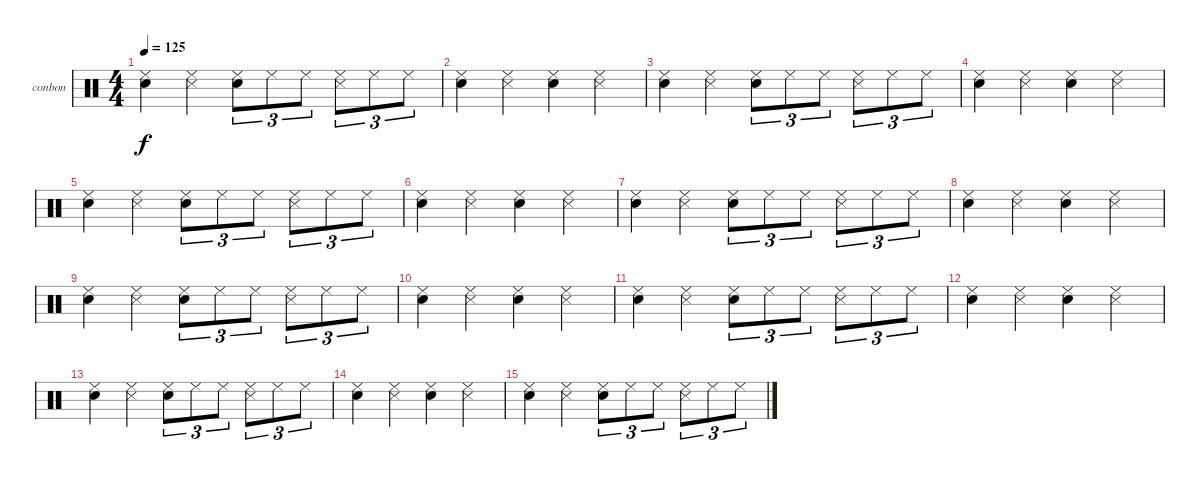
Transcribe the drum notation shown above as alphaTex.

\defaultSystemsLayout 4
\bracketExtendMode groupsimilarinstruments
\firstSystemTrackNameOrientation horizontal
\otherSystemsTrackNameOrientation horizontal
\track ("Bongos N Congas" "conbon") {instrument percussion}
\staff {score}
\articulation defaults
\ts (4 4)
\tempo 125
\clef neutral
\scale
0.333333
\ks c
("Cowbell low (tip)" "Snare (hit) 2").4{dy f} ("Cowbell low (tip)" "Snare (side stick) 3").4 ("Cowbell low (tip)" "Snare (hit) 2").8{tu (3 2)} "Cowbell low (tip)".8{tu (3 2)} "Cowbell low (tip)".8{tu (3 2)} ("Cowbell low (tip)" "Snare (side stick) 3").8{tu (3 2)} "Cowbell low (tip)".8{tu (3 2)} "Cowbell low (tip)".8{tu (3 2)} |
\scale
0.333333 ("Cowbell low (tip)" "Snare (hit) 2").4 ("Cowbell low (tip)" "Snare (side stick) 3").4 ("Cowbell low (tip)" "Snare (hit) 2").4 ("Cowbell low (tip)" "Snare (side stick) 3").4 |
\scale
0.333333 ("Cowbell low (tip)" "Snare (hit) 2").4 ("Cowbell low (tip)" "Snare (side stick) 3").4 ("Cowbell low (tip)" "Snare (hit) 2").8{tu (3 2)} "Cowbell low (tip)".8{tu (3 2)} "Cowbell low (tip)".8{tu (3 2)} ("Cowbell low (tip)" "Snare (side stick) 3").8{tu (3 2)} "Cowbell low (tip)".8{tu (3 2)} "Cowbell low (tip)".8{tu (3 2)} |
\scale
0.333333 ("Cowbell low (tip)" "Snare (hit) 2").4 ("Cowbell low (tip)" "Snare (side stick) 3").4 ("Cowbell low (tip)" "Snare (hit) 2").4 ("Cowbell low (tip)" "Snare (side stick) 3").4 |
\scale
0.333333 ("Cowbell low (tip)" "Snare (hit) 2").4 ("Cowbell low (tip)" "Snare (side stick) 3").4 ("Cowbell low (tip)" "Snare (hit) 2").8{tu (3 2)} "Cowbell low (tip)".8{tu (3 2)} "Cowbell low (tip)".8{tu (3 2)} ("Cowbell low (tip)" "Snare (side stick) 3").8{tu (3 2)} "Cowbell low (tip)".8{tu (3 2)} "Cowbell low (tip)".8{tu (3 2)} |
\scale
0.333333 ("Cowbell low (tip)" "Snare (hit) 2").4 ("Cowbell low (tip)" "Snare (side stick) 3").4 ("Cowbell low (tip)" "Snare (hit) 2").4 ("Cowbell low (tip)" "Snare (side stick) 3").4 |
\scale
0.333333 ("Cowbell low (tip)" "Snare (hit) 2").4 ("Cowbell low (tip)" "Snare (side stick) 3").4 ("Cowbell low (tip)" "Snare (hit) 2").8{tu (3 2)} "Cowbell low (tip)".8{tu (3 2)} "Cowbell low (tip)".8{tu (3 2)} ("Cowbell low (tip)" "Snare (side stick) 3").8{tu (3 2)} "Cowbell low (tip)".8{tu (3 2)} "Cowbell low (tip)".8{tu (3 2)} |
\scale
0.333333 ("Cowbell low (tip)" "Snare (hit) 2").4 ("Cowbell low (tip)" "Snare (side stick) 3").4 ("Cowbell low (tip)" "Snare (hit) 2").4 ("Cowbell low (tip)" "Snare (side stick) 3").4 |
\scale
0.333333 ("Cowbell low (tip)" "Snare (hit) 2").4 ("Cowbell low (tip)" "Snare (side stick) 3").4 ("Cowbell low (tip)" "Snare (hit) 2").8{tu (3 2)} "Cowbell low (tip)".8{tu (3 2)} "Cowbell low (tip)".8{tu (3 2)} ("Cowbell low (tip)" "Snare (side stick) 3").8{tu (3 2)} "Cowbell low (tip)".8{tu (3 2)} "Cowbell low (tip)".8{tu (3 2)} |
\scale
0.333333 ("Cowbell low (tip)" "Snare (hit) 2").4 ("Cowbell low (tip)" "Snare (side stick) 3").4 ("Cowbell low (tip)" "Snare (hit) 2").4 ("Cowbell low (tip)" "Snare (side stick) 3").4 |
\scale
0.333333 ("Cowbell low (tip)" "Snare (hit) 2").4 ("Cowbell low (tip)" "Snare (side stick) 3").4 ("Cowbell low (tip)" "Snare (hit) 2").8{tu (3 2)} "Cowbell low (tip)".8{tu (3 2)} "Cowbell low (tip)".8{tu (3 2)} ("Cowbell low (tip)" "Snare (side stick) 3").8{tu (3 2)} "Cowbell low (tip)".8{tu (3 2)} "Cowbell low (tip)".8{tu (3 2)} |
\scale
0.333333 ("Cowbell low (tip)" "Snare (hit) 2").4 ("Cowbell low (tip)" "Snare (side stick) 3").4 ("Cowbell low (tip)" "Snare (hit) 2").4 ("Cowbell low (tip)" "Snare (side stick) 3").4 |
\scale
0.333333 ("Cowbell low (tip)" "Snare (hit) 2").4 ("Cowbell low (tip)" "Snare (side stick) 3").4 ("Cowbell low (tip)" "Snare (hit) 2").8{tu (3 2)} "Cowbell low (tip)".8{tu (3 2)} "Cowbell low (tip)".8{tu (3 2)} ("Cowbell low (tip)" "Snare (side stick) 3").8{tu (3 2)} "Cowbell low (tip)".8{tu (3 2)} "Cowbell low (tip)".8{tu (3 2)} |
\scale
0.333333 ("Cowbell low (tip)" "Snare (hit) 2").4 ("Cowbell low (tip)" "Snare (side stick) 3").4 ("Cowbell low (tip)" "Snare (hit) 2").4 ("Cowbell low (tip)" "Snare (side stick) 3").4 |
\scale
0.333333 ("Cowbell low (tip)" "Snare (hit) 2").4 ("Cowbell low (tip)" "Snare (side stick) 3").4 ("Cowbell low (tip)" "Snare (hit) 2").8{tu (3 2)} "Cowbell low (tip)".8{tu (3 2)} "Cowbell low (tip)".8{tu (3 2)} ("Cowbell low (tip)" "Snare (side stick) 3").8{tu (3 2)} "Cowbell low (tip)".8{tu (3 2)} "Cowbell low (tip)".8{tu (3 2)} |
\scale
0.333333
